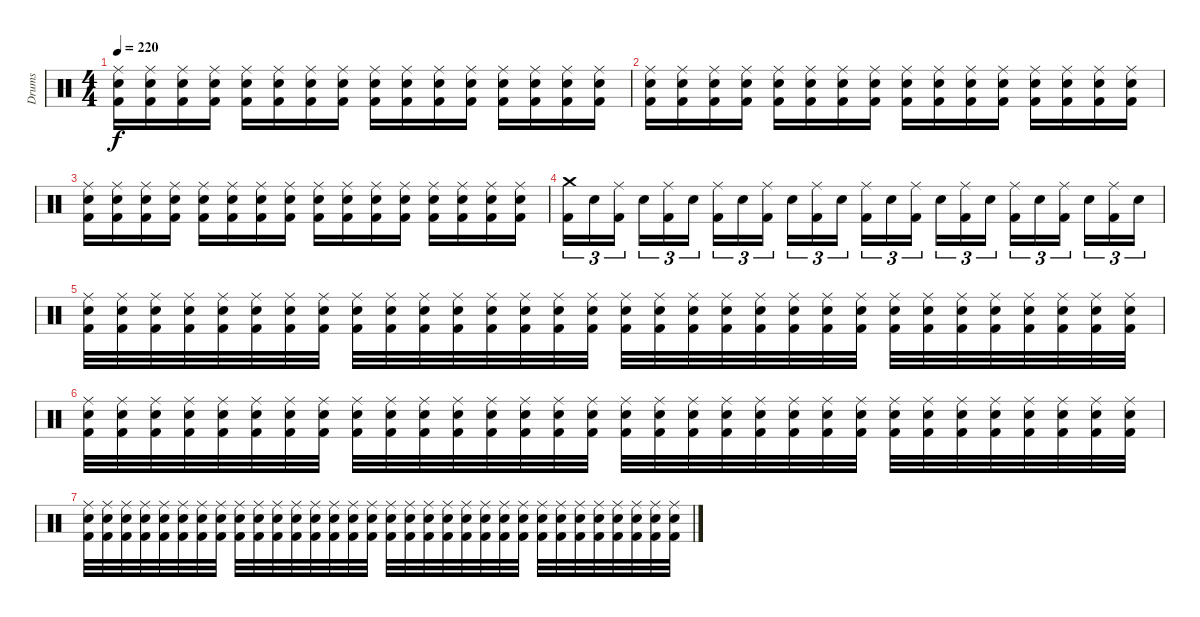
\track ("Drums" "Drums") {instrument percussion}
\staff {score}
\articulation defaults
\ts (4 4)
\tempo 220
\clef neutral
\ks c
("Ride (middle)" "Electric Snare (hit)" "Kick (hit) 2").16{dy f} ("Ride (middle)" "Electric Snare (hit)" "Kick (hit) 2").16 ("Ride (middle)" "Electric Snare (hit)" "Kick (hit) 2").16 ("Ride (middle)" "Electric Snare (hit)" "Kick (hit) 2").16 ("Ride (middle)" "Electric Snare (hit)" "Kick (hit) 2").16 ("Ride (middle)" "Electric Snare (hit)" "Kick (hit) 2").16 ("Ride (middle)" "Electric Snare (hit)" "Kick (hit) 2").16 ("Ride (middle)" "Electric Snare (hit)" "Kick (hit) 2").16 ("Ride (middle)" "Electric Snare (hit)" "Kick (hit) 2").16 ("Ride (middle)" "Electric Snare (hit)" "Kick (hit) 2").16 ("Ride (middle)" "Electric Snare (hit)" "Kick (hit) 2").16 ("Ride (middle)" "Electric Snare (hit)" "Kick (hit) 2").16 ("Ride (middle)" "Electric Snare (hit)" "Kick (hit) 2").16 ("Ride (middle)" "Electric Snare (hit)" "Kick (hit) 2").16 ("Ride (middle)" "Electric Snare (hit)" "Kick (hit) 2").16 ("Ride (middle)" "Electric Snare (hit)" "Kick (hit) 2").16 |
("Ride (middle)" "Electric Snare (hit)" "Kick (hit) 2").16 ("Ride (middle)" "Electric Snare (hit)" "Kick (hit) 2").16 ("Ride (middle)" "Electric Snare (hit)" "Kick (hit) 2").16 ("Ride (middle)" "Electric Snare (hit)" "Kick (hit) 2").16 ("Ride (middle)" "Electric Snare (hit)" "Kick (hit) 2").16 ("Ride (middle)" "Electric Snare (hit)" "Kick (hit) 2").16 ("Ride (middle)" "Electric Snare (hit)" "Kick (hit) 2").16 ("Ride (middle)" "Electric Snare (hit)" "Kick (hit) 2").16 ("Ride (middle)" "Electric Snare (hit)" "Kick (hit) 2").16 ("Ride (middle)" "Electric Snare (hit)" "Kick (hit) 2").16 ("Ride (middle)" "Electric Snare (hit)" "Kick (hit) 2").16 ("Ride (middle)" "Electric Snare (hit)" "Kick (hit) 2").16 ("Ride (middle)" "Electric Snare (hit)" "Kick (hit) 2").16 ("Ride (middle)" "Electric Snare (hit)" "Kick (hit) 2").16 ("Ride (middle)" "Electric Snare (hit)" "Kick (hit) 2").16 ("Ride (middle)" "Electric Snare (hit)" "Kick (hit) 2").16 |
("Ride (middle)" "Electric Snare (hit)" "Kick (hit) 2").16 ("Ride (middle)" "Electric Snare (hit)" "Kick (hit) 2").16 ("Ride (middle)" "Electric Snare (hit)" "Kick (hit) 2").16 ("Ride (middle)" "Electric Snare (hit)" "Kick (hit) 2").16 ("Ride (middle)" "Electric Snare (hit)" "Kick (hit) 2").16 ("Ride (middle)" "Electric Snare (hit)" "Kick (hit) 2").16 ("Ride (middle)" "Electric Snare (hit)" "Kick (hit) 2").16 ("Ride (middle)" "Electric Snare (hit)" "Kick (hit) 2").16 ("Ride (middle)" "Electric Snare (hit)" "Kick (hit) 2").16 ("Ride (middle)" "Electric Snare (hit)" "Kick (hit) 2").16 ("Ride (middle)" "Electric Snare (hit)" "Kick (hit) 2").16 ("Ride (middle)" "Electric Snare (hit)" "Kick (hit) 2").16 ("Ride (middle)" "Electric Snare (hit)" "Kick (hit) 2").16 ("Ride (middle)" "Electric Snare (hit)" "Kick (hit) 2").16 ("Ride (middle)" "Electric Snare (hit)" "Kick (hit) 2").16 ("Ride (middle)" "Electric Snare (hit)" "Kick (hit) 2").16 |
("Crash medium (hit)" "Kick (hit) 2").16{tu (3 2)} "Electric Snare (hit)".16{tu (3 2)} ("Ride (middle)" "Kick (hit) 2").16{tu (3 2) beam splitsecondary} "Electric Snare (hit)".16{tu (3 2)} ("Ride (middle)" "Kick (hit) 2").16{tu (3 2)} "Electric Snare (hit)".16{tu (3 2)} ("Ride (middle)" "Kick (hit) 2").16{tu (3 2)} "Electric Snare (hit)".16{tu (3 2)} ("Ride (middle)" "Kick (hit) 2").16{tu (3 2) beam splitsecondary} "Electric Snare (hit)".16{tu (3 2)} ("Ride (middle)" "Kick (hit) 2").16{tu (3 2)} "Electric Snare (hit)".16{tu (3 2)} ("Ride (middle)" "Kick (hit) 2").16{tu (3 2)} "Electric Snare (hit)".16{tu (3 2)} ("Ride (middle)" "Kick (hit) 2").16{tu (3 2) beam splitsecondary} "Electric Snare (hit)".16{tu (3 2)} ("Ride (middle)" "Kick (hit) 2").16{tu (3 2)} "Electric Snare (hit)".16{tu (3 2)} ("Ride (middle)" "Kick (hit) 2").16{tu (3 2)} "Electric Snare (hit)".16{tu (3 2)} ("Ride (middle)" "Kick (hit) 2").16{tu (3 2) beam splitsecondary} "Electric Snare (hit)".16{tu (3 2)} ("Ride (middle)" "Kick (hit) 2").16{tu (3 2)} "Electric Snare (hit)".16{tu (3 2)} |
("Ride (middle)" "Electric Snare (hit)" "Kick (hit) 2").32 ("Ride (middle)" "Electric Snare (hit)" "Kick (hit) 2").32 ("Ride (middle)" "Electric Snare (hit)" "Kick (hit) 2").32 ("Ride (middle)" "Electric Snare (hit)" "Kick (hit) 2").32 ("Ride (middle)" "Electric Snare (hit)" "Kick (hit) 2").32 ("Ride (middle)" "Electric Snare (hit)" "Kick (hit) 2").32 ("Ride (middle)" "Electric Snare (hit)" "Kick (hit) 2").32 ("Ride (middle)" "Electric Snare (hit)" "Kick (hit) 2").32 ("Ride (middle)" "Electric Snare (hit)" "Kick (hit) 2").32 ("Ride (middle)" "Electric Snare (hit)" "Kick (hit) 2").32 ("Ride (middle)" "Electric Snare (hit)" "Kick (hit) 2").32 ("Ride (middle)" "Electric Snare (hit)" "Kick (hit) 2").32 ("Ride (middle)" "Electric Snare (hit)" "Kick (hit) 2").32 ("Ride (middle)" "Electric Snare (hit)" "Kick (hit) 2").32 ("Ride (middle)" "Electric Snare (hit)" "Kick (hit) 2").32 ("Ride (middle)" "Electric Snare (hit)" "Kick (hit) 2").32 ("Ride (middle)" "Electric Snare (hit)" "Kick (hit) 2").32 ("Ride (middle)" "Electric Snare (hit)" "Kick (hit) 2").32 ("Ride (middle)" "Electric Snare (hit)" "Kick (hit) 2").32 ("Ride (middle)" "Electric Snare (hit)" "Kick (hit) 2").32 ("Ride (middle)" "Electric Snare (hit)" "Kick (hit) 2").32 ("Ride (middle)" "Electric Snare (hit)" "Kick (hit) 2").32 ("Ride (middle)" "Electric Snare (hit)" "Kick (hit) 2").32 ("Ride (middle)" "Electric Snare (hit)" "Kick (hit) 2").32 ("Ride (middle)" "Electric Snare (hit)" "Kick (hit) 2").32 ("Ride (middle)" "Electric Snare (hit)" "Kick (hit) 2").32 ("Ride (middle)" "Electric Snare (hit)" "Kick (hit) 2").32 ("Ride (middle)" "Electric Snare (hit)" "Kick (hit) 2").32 ("Ride (middle)" "Electric Snare (hit)" "Kick (hit) 2").32 ("Ride (middle)" "Electric Snare (hit)" "Kick (hit) 2").32 ("Ride (middle)" "Electric Snare (hit)" "Kick (hit) 2").32 ("Ride (middle)" "Electric Snare (hit)" "Kick (hit) 2").32 |
("Ride (middle)" "Electric Snare (hit)" "Kick (hit) 2").32 ("Ride (middle)" "Electric Snare (hit)" "Kick (hit) 2").32 ("Ride (middle)" "Electric Snare (hit)" "Kick (hit) 2").32 ("Ride (middle)" "Electric Snare (hit)" "Kick (hit) 2").32 ("Ride (middle)" "Electric Snare (hit)" "Kick (hit) 2").32 ("Ride (middle)" "Electric Snare (hit)" "Kick (hit) 2").32 ("Ride (middle)" "Electric Snare (hit)" "Kick (hit) 2").32 ("Ride (middle)" "Electric Snare (hit)" "Kick (hit) 2").32 ("Ride (middle)" "Electric Snare (hit)" "Kick (hit) 2").32 ("Ride (middle)" "Electric Snare (hit)" "Kick (hit) 2").32 ("Ride (middle)" "Electric Snare (hit)" "Kick (hit) 2").32 ("Ride (middle)" "Electric Snare (hit)" "Kick (hit) 2").32 ("Ride (middle)" "Electric Snare (hit)" "Kick (hit) 2").32 ("Ride (middle)" "Electric Snare (hit)" "Kick (hit) 2").32 ("Ride (middle)" "Electric Snare (hit)" "Kick (hit) 2").32 ("Ride (middle)" "Electric Snare (hit)" "Kick (hit) 2").32 ("Ride (middle)" "Electric Snare (hit)" "Kick (hit) 2").32 ("Ride (middle)" "Electric Snare (hit)" "Kick (hit) 2").32 ("Ride (middle)" "Electric Snare (hit)" "Kick (hit) 2").32 ("Ride (middle)" "Electric Snare (hit)" "Kick (hit) 2").32 ("Ride (middle)" "Electric Snare (hit)" "Kick (hit) 2").32 ("Ride (middle)" "Electric Snare (hit)" "Kick (hit) 2").32 ("Ride (middle)" "Electric Snare (hit)" "Kick (hit) 2").32 ("Ride (middle)" "Electric Snare (hit)" "Kick (hit) 2").32 ("Ride (middle)" "Electric Snare (hit)" "Kick (hit) 2").32 ("Ride (middle)" "Electric Snare (hit)" "Kick (hit) 2").32 ("Ride (middle)" "Electric Snare (hit)" "Kick (hit) 2").32 ("Ride (middle)" "Electric Snare (hit)" "Kick (hit) 2").32 ("Ride (middle)" "Electric Snare (hit)" "Kick (hit) 2").32 ("Ride (middle)" "Electric Snare (hit)" "Kick (hit) 2").32 ("Ride (middle)" "Electric Snare (hit)" "Kick (hit) 2").32 ("Ride (middle)" "Electric Snare (hit)" "Kick (hit) 2").32 |
("Ride (middle)" "Electric Snare (hit)" "Kick (hit) 2").32 ("Ride (middle)" "Electric Snare (hit)" "Kick (hit) 2").32 ("Ride (middle)" "Electric Snare (hit)" "Kick (hit) 2").32 ("Ride (middle)" "Electric Snare (hit)" "Kick (hit) 2").32 ("Ride (middle)" "Electric Snare (hit)" "Kick (hit) 2").32 ("Ride (middle)" "Electric Snare (hit)" "Kick (hit) 2").32 ("Ride (middle)" "Electric Snare (hit)" "Kick (hit) 2").32 ("Ride (middle)" "Electric Snare (hit)" "Kick (hit) 2").32 ("Ride (middle)" "Electric Snare (hit)" "Kick (hit) 2").32 ("Ride (middle)" "Electric Snare (hit)" "Kick (hit) 2").32 ("Ride (middle)" "Electric Snare (hit)" "Kick (hit) 2").32 ("Ride (middle)" "Electric Snare (hit)" "Kick (hit) 2").32 ("Ride (middle)" "Electric Snare (hit)" "Kick (hit) 2").32 ("Ride (middle)" "Electric Snare (hit)" "Kick (hit) 2").32 ("Ride (middle)" "Electric Snare (hit)" "Kick (hit) 2").32 ("Ride (middle)" "Electric Snare (hit)" "Kick (hit) 2").32 ("Ride (middle)" "Electric Snare (hit)" "Kick (hit) 2").32 ("Ride (middle)" "Electric Snare (hit)" "Kick (hit) 2").32 ("Ride (middle)" "Electric Snare (hit)" "Kick (hit) 2").32 ("Ride (middle)" "Electric Snare (hit)" "Kick (hit) 2").32 ("Ride (middle)" "Electric Snare (hit)" "Kick (hit) 2").32 ("Ride (middle)" "Electric Snare (hit)" "Kick (hit) 2").32 ("Ride (middle)" "Electric Snare (hit)" "Kick (hit) 2").32 ("Ride (middle)" "Electric Snare (hit)" "Kick (hit) 2").32 ("Ride (middle)" "Electric Snare (hit)" "Kick (hit) 2").32 ("Ride (middle)" "Electric Snare (hit)" "Kick (hit) 2").32 ("Ride (middle)" "Electric Snare (hit)" "Kick (hit) 2").32 ("Ride (middle)" "Electric Snare (hit)" "Kick (hit) 2").32 ("Ride (middle)" "Electric Snare (hit)" "Kick (hit) 2").32 ("Ride (middle)" "Electric Snare (hit)" "Kick (hit) 2").32 ("Ride (middle)" "Electric Snare (hit)" "Kick (hit) 2").32 ("Ride (middle)" "Electric Snare (hit)" "Kick (hit) 2").32
